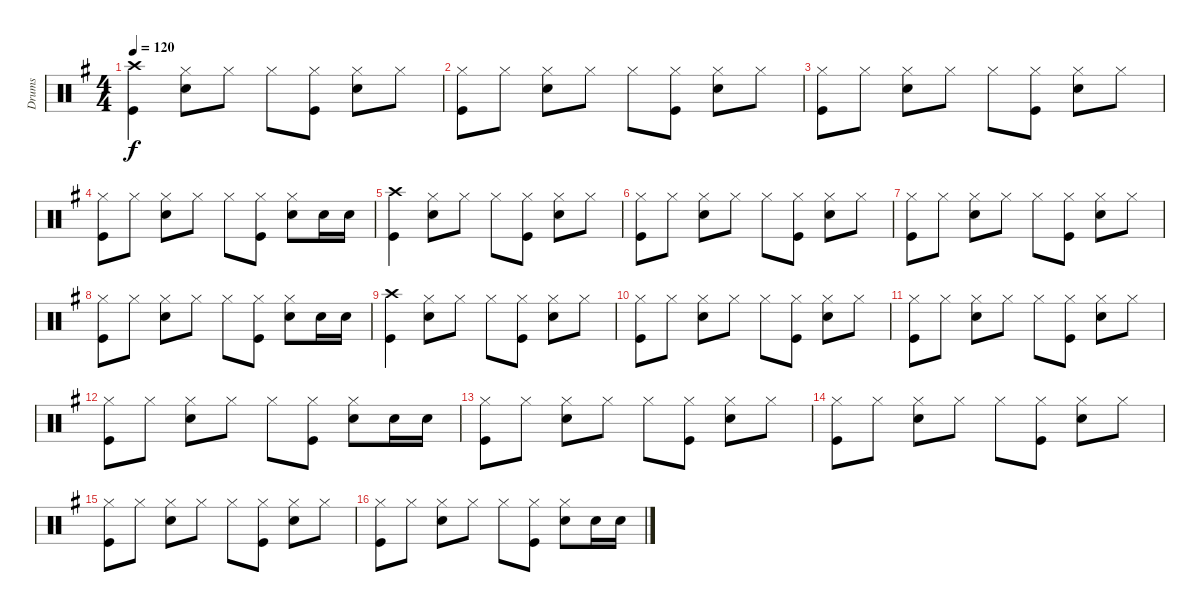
\track ("Drums" "Drums") {instrument percussion}
\staff {score}
\articulation defaults
\ts (4 4)
\tempo 120
\clef neutral
\ks g
("Crash high (hit)" "Kick (hit)").4{dy f} ("Hi-Hat (closed)" "Snare (hit) 2").8 "Hi-Hat (closed)".8 "Hi-Hat (closed)".8 ("Hi-Hat (closed)" "Kick (hit)").8 ("Hi-Hat (closed)" "Snare (hit) 2").8 "Hi-Hat (closed)".8 |
("Hi-Hat (closed)" "Kick (hit)").8 "Hi-Hat (closed)".8 ("Hi-Hat (closed)" "Snare (hit) 2").8 "Hi-Hat (closed)".8 "Hi-Hat (closed)".8 ("Hi-Hat (closed)" "Kick (hit)").8 ("Hi-Hat (closed)" "Snare (hit) 2").8 "Hi-Hat (closed)".8 |
("Hi-Hat (closed)" "Kick (hit)").8 "Hi-Hat (closed)".8 ("Hi-Hat (closed)" "Snare (hit) 2").8 "Hi-Hat (closed)".8 "Hi-Hat (closed)".8 ("Hi-Hat (closed)" "Kick (hit)").8 ("Hi-Hat (closed)" "Snare (hit) 2").8 "Hi-Hat (closed)".8 |
("Hi-Hat (closed)" "Kick (hit)").8 "Hi-Hat (closed)".8 ("Hi-Hat (closed)" "Snare (hit) 2").8 "Hi-Hat (closed)".8 "Hi-Hat (closed)".8 ("Hi-Hat (closed)" "Kick (hit)").8 ("Hi-Hat (closed)" "Snare (hit) 2").8 "Snare (hit) 2".16 "Snare (hit) 2".16 |
("Crash high (hit)" "Kick (hit)").4 ("Hi-Hat (closed)" "Snare (hit) 2").8 "Hi-Hat (closed)".8 "Hi-Hat (closed)".8 ("Hi-Hat (closed)" "Kick (hit)").8 ("Hi-Hat (closed)" "Snare (hit) 2").8 "Hi-Hat (closed)".8 |
("Hi-Hat (closed)" "Kick (hit)").8 "Hi-Hat (closed)".8 ("Hi-Hat (closed)" "Snare (hit) 2").8 "Hi-Hat (closed)".8 "Hi-Hat (closed)".8 ("Hi-Hat (closed)" "Kick (hit)").8 ("Hi-Hat (closed)" "Snare (hit) 2").8 "Hi-Hat (closed)".8 |
("Hi-Hat (closed)" "Kick (hit)").8 "Hi-Hat (closed)".8 ("Hi-Hat (closed)" "Snare (hit) 2").8 "Hi-Hat (closed)".8 "Hi-Hat (closed)".8 ("Hi-Hat (closed)" "Kick (hit)").8 ("Hi-Hat (closed)" "Snare (hit) 2").8 "Hi-Hat (closed)".8 |
("Hi-Hat (closed)" "Kick (hit)").8 "Hi-Hat (closed)".8 ("Hi-Hat (closed)" "Snare (hit) 2").8 "Hi-Hat (closed)".8 "Hi-Hat (closed)".8 ("Hi-Hat (closed)" "Kick (hit)").8 ("Hi-Hat (closed)" "Snare (hit) 2").8 "Snare (hit) 2".16 "Snare (hit) 2".16 |
("Crash high (hit)" "Kick (hit)").4 ("Hi-Hat (closed)" "Snare (hit) 2").8 "Hi-Hat (closed)".8 "Hi-Hat (closed)".8 ("Hi-Hat (closed)" "Kick (hit)").8 ("Hi-Hat (closed)" "Snare (hit) 2").8 "Hi-Hat (closed)".8 |
("Hi-Hat (closed)" "Kick (hit)").8 "Hi-Hat (closed)".8 ("Hi-Hat (closed)" "Snare (hit) 2").8 "Hi-Hat (closed)".8 "Hi-Hat (closed)".8 ("Hi-Hat (closed)" "Kick (hit)").8 ("Hi-Hat (closed)" "Snare (hit) 2").8 "Hi-Hat (closed)".8 |
("Hi-Hat (closed)" "Kick (hit)").8 "Hi-Hat (closed)".8 ("Hi-Hat (closed)" "Snare (hit) 2").8 "Hi-Hat (closed)".8 "Hi-Hat (closed)".8 ("Hi-Hat (closed)" "Kick (hit)").8 ("Hi-Hat (closed)" "Snare (hit) 2").8 "Hi-Hat (closed)".8 |
("Hi-Hat (closed)" "Kick (hit)").8 "Hi-Hat (closed)".8 ("Hi-Hat (closed)" "Snare (hit) 2").8 "Hi-Hat (closed)".8 "Hi-Hat (closed)".8 ("Hi-Hat (closed)" "Kick (hit)").8 ("Hi-Hat (closed)" "Snare (hit) 2").8 "Snare (hit) 2".16 "Snare (hit) 2".16 |
("Hi-Hat (closed)" "Kick (hit)").8 "Hi-Hat (closed)".8 ("Hi-Hat (closed)" "Snare (hit) 2").8 "Hi-Hat (closed)".8 "Hi-Hat (closed)".8 ("Hi-Hat (closed)" "Kick (hit)").8 ("Hi-Hat (closed)" "Snare (hit) 2").8 "Hi-Hat (closed)".8 |
("Hi-Hat (closed)" "Kick (hit)").8 "Hi-Hat (closed)".8 ("Hi-Hat (closed)" "Snare (hit) 2").8 "Hi-Hat (closed)".8 "Hi-Hat (closed)".8 ("Hi-Hat (closed)" "Kick (hit)").8 ("Hi-Hat (closed)" "Snare (hit) 2").8 "Hi-Hat (closed)".8 |
("Hi-Hat (closed)" "Kick (hit)").8 "Hi-Hat (closed)".8 ("Hi-Hat (closed)" "Snare (hit) 2").8 "Hi-Hat (closed)".8 "Hi-Hat (closed)".8 ("Hi-Hat (closed)" "Kick (hit)").8 ("Hi-Hat (closed)" "Snare (hit) 2").8 "Hi-Hat (closed)".8 |
("Hi-Hat (closed)" "Kick (hit)").8 "Hi-Hat (closed)".8 ("Hi-Hat (closed)" "Snare (hit) 2").8 "Hi-Hat (closed)".8 "Hi-Hat (closed)".8 ("Hi-Hat (closed)" "Kick (hit)").8 ("Hi-Hat (closed)" "Snare (hit) 2").8 "Snare (hit) 2".16 "Snare (hit) 2".16
